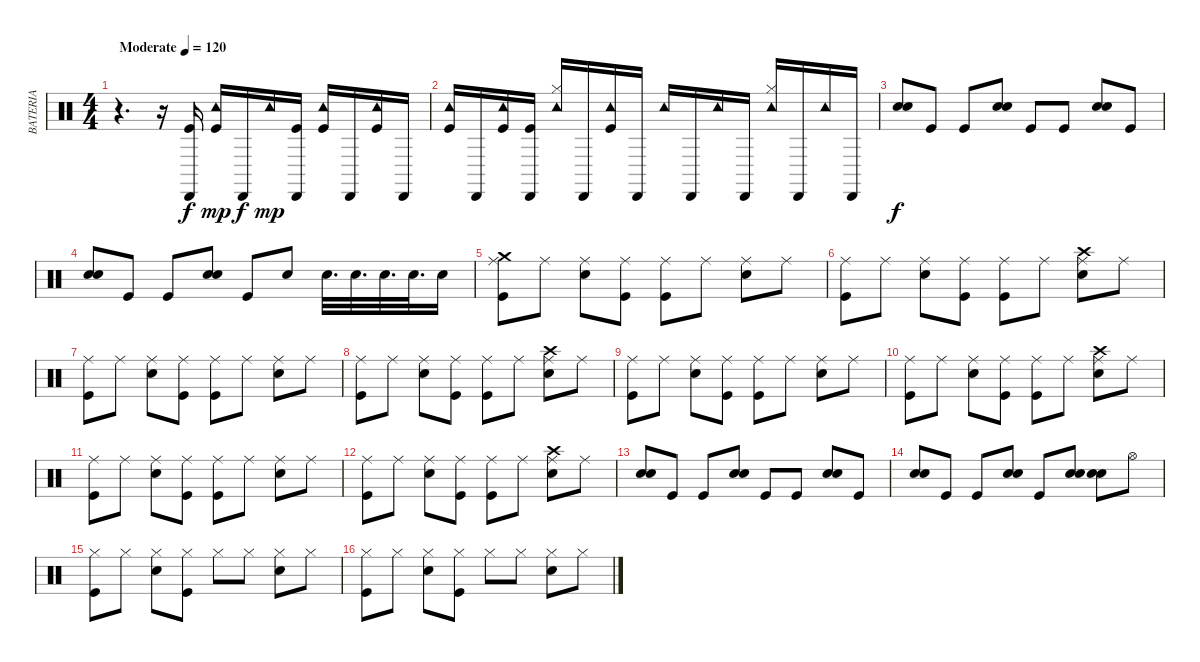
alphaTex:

\track ("BATERIA" "BATERIA") {instrument percussion}
\staff {score}
\articulation defaults
\ts (4 4)
\tempo (120 "Moderate")
\clef neutral
\ks c
r.4{d dy f volume 10} r.16 ("Cabasa (hit)" "Kick (hit)").16 ("Tambourine (hit)" "Kick (hit)").16{dy mp} "Cabasa (hit)".16{dy f} "Tambourine (hit)".16{dy mp} ("Cabasa (hit)" "Kick (hit)").16 ("Tambourine (hit)" "Kick (hit)").16 "Cabasa (hit)".16 ("Tambourine (hit)" "Kick (hit)").16 "Cabasa (hit)".16 |
("Tambourine (hit)" "Kick (hit)").16 "Cabasa (hit)".16 ("Tambourine (hit)" "Kick (hit)").16 ("Cabasa (hit)" "Kick (hit)").16 ("Tambourine (hit)" "Hi-Hat (closed)").16 "Cabasa (hit)".16 ("Tambourine (hit)" "Kick (hit)").16 "Cabasa (hit)".16 "Tambourine (hit)".16 "Cabasa (hit)".16 "Tambourine (hit)".16 "Cabasa (hit)".16 ("Tambourine (hit)" "Hi-Hat (closed)").16 "Cabasa (hit)".16 "Tambourine (hit)".16 "Cabasa (hit)".16 |
("Snare (hit) 2" "Snare (hit) 2").8{dy f volume 16} "Kick (hit)".8 "Kick (hit)".8 ("Snare (hit) 2" "Snare (hit) 2").8 "Kick (hit)".8 "Kick (hit)".8 ("Snare (hit) 2" "Snare (hit) 2").8 "Kick (hit)".8 |
("Snare (hit) 2" "Snare (hit) 2").8 "Kick (hit)".8 "Kick (hit)".8 ("Snare (hit) 2" "Snare (hit) 2").8 "Kick (hit)".8 "Snare (hit) 2".8 "Snare (hit) 2".32{d} "Snare (hit) 2".32{d} "Snare (hit) 2".32{d} "Snare (hit) 2".32{d} "Snare (hit) 2".16 |
("Crash medium (hit)" "Ride (middle)" "Kick (hit)").8 "Ride (middle)".8 ("Ride (middle)" "Snare (hit) 2").8 ("Ride (middle)" "Kick (hit)").8 ("Ride (middle)" "Kick (hit)").8 "Ride (middle)".8 ("Ride (middle)" "Snare (hit) 2").8 "Ride (middle)".8 |
("Ride (middle)" "Kick (hit)").8 "Ride (middle)".8 ("Ride (middle)" "Snare (hit) 2").8 ("Ride (middle)" "Kick (hit)").8 ("Ride (middle)" "Kick (hit)").8 "Ride (middle)".8 ("Crash high (hit)" "Ride (middle)" "Snare (hit) 2").8 "Ride (middle)".8 |
("Ride (middle)" "Kick (hit)").8 "Ride (middle)".8 ("Ride (middle)" "Snare (hit) 2").8 ("Ride (middle)" "Kick (hit)").8 ("Ride (middle)" "Kick (hit)").8 "Ride (middle)".8 ("Ride (middle)" "Snare (hit) 2").8 "Ride (middle)".8 |
("Ride (middle)" "Kick (hit)").8 "Ride (middle)".8 ("Ride (middle)" "Snare (hit) 2").8 ("Ride (middle)" "Kick (hit)").8 ("Ride (middle)" "Kick (hit)").8 "Ride (middle)".8 ("Crash high (hit)" "Ride (middle)" "Snare (hit) 2").8 "Ride (middle)".8 |
("Ride (middle)" "Kick (hit)").8 "Ride (middle)".8 ("Ride (middle)" "Snare (hit) 2").8 ("Ride (middle)" "Kick (hit)").8 ("Ride (middle)" "Kick (hit)").8 "Ride (middle)".8 ("Ride (middle)" "Snare (hit) 2").8 "Ride (middle)".8 |
("Ride (middle)" "Kick (hit)").8 "Ride (middle)".8 ("Ride (middle)" "Snare (hit) 2").8 ("Ride (middle)" "Kick (hit)").8 ("Ride (middle)" "Kick (hit)").8 "Ride (middle)".8 ("Crash high (hit)" "Ride (middle)" "Snare (hit) 2").8 "Ride (middle)".8 |
("Ride (middle)" "Kick (hit)").8 "Ride (middle)".8 ("Ride (middle)" "Snare (hit) 2").8 ("Ride (middle)" "Kick (hit)").8 ("Ride (middle)" "Kick (hit)").8 "Ride (middle)".8 ("Ride (middle)" "Snare (hit) 2").8 "Ride (middle)".8 |
("Ride (middle)" "Kick (hit)").8 "Ride (middle)".8 ("Ride (middle)" "Snare (hit) 2").8 ("Ride (middle)" "Kick (hit)").8 ("Ride (middle)" "Kick (hit)").8 "Ride (middle)".8 ("Crash high (hit)" "Ride (middle)" "Snare (hit) 2").8 "Ride (middle)".8 |
("Snare (hit) 2" "Snare (hit) 2").8 "Kick (hit)".8 "Kick (hit)".8 ("Snare (hit) 2" "Snare (hit) 2").8 "Kick (hit)".8 "Kick (hit)".8 ("Snare (hit) 2" "Snare (hit) 2").8 "Kick (hit)".8 |
("Snare (hit) 2" "Snare (hit) 2").8 "Kick (hit)".8 "Kick (hit)".8 ("Snare (hit) 2" "Snare (hit) 2").8 "Kick (hit)".8 ("Snare (hit) 2" "Snare (hit) 2").8 ("Snare (hit) 2" "Snare (hit) 2").8 "Hi-Hat (open)".8 |
("Hi-Hat (closed)" "Kick (hit)").8 "Hi-Hat (closed)".8 ("Hi-Hat (closed)" "Snare (hit) 2").8 ("Hi-Hat (closed)" "Kick (hit)").8 "Hi-Hat (closed)".8 "Hi-Hat (closed)".8 ("Hi-Hat (closed)" "Snare (hit) 2").8 "Hi-Hat (closed)".8 |
("Hi-Hat (closed)" "Kick (hit)").8 "Hi-Hat (closed)".8 ("Hi-Hat (closed)" "Snare (hit) 2").8 ("Hi-Hat (closed)" "Kick (hit)").8 "Hi-Hat (closed)".8 "Hi-Hat (closed)".8 ("Hi-Hat (closed)" "Snare (hit) 2").8 "Hi-Hat (closed)".8
